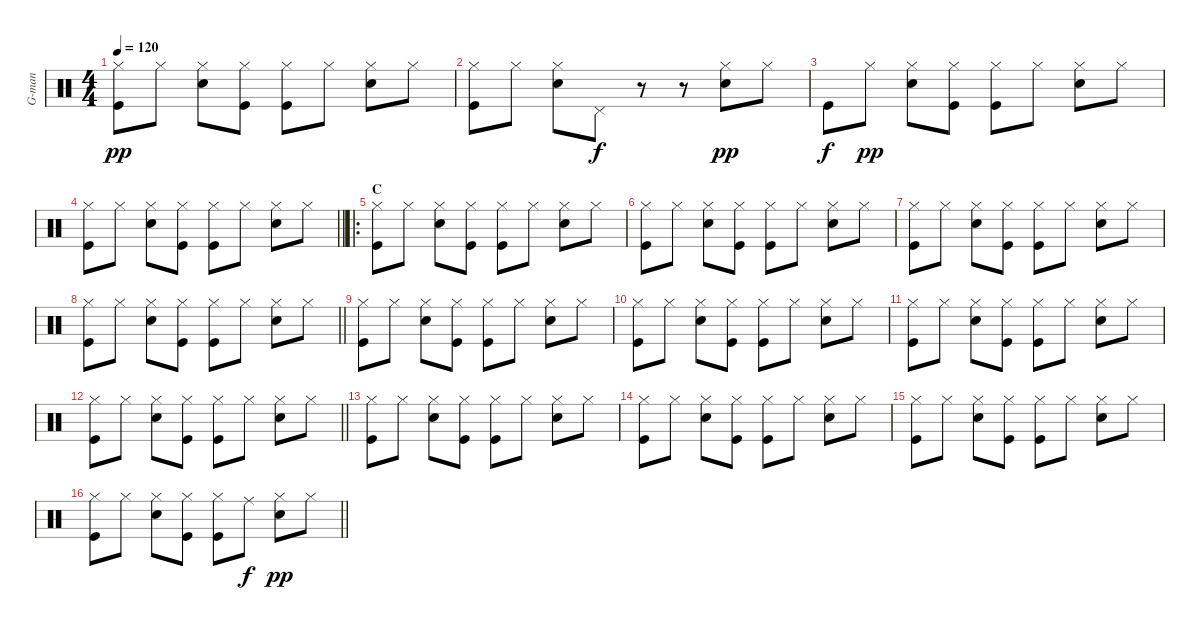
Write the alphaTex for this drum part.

\track ("G-man" "G-man") {instrument percussion}
\staff {score}
\articulation defaults
\ts (4 4)
\tempo 120
\clef neutral
\ks c
("Hi-Hat (closed)" "Kick (hit)").8{dy pp} "Hi-Hat (closed)".8 ("Hi-Hat (closed)" "Snare (hit) 2").8 ("Hi-Hat (closed)" "Kick (hit)").8 ("Hi-Hat (closed)" "Kick (hit)").8 "Hi-Hat (closed)".8 ("Hi-Hat (closed)" "Snare (hit) 2").8 "Hi-Hat (closed)".8 |
("Hi-Hat (closed)" "Kick (hit)").8 "Hi-Hat (closed)".8 ("Hi-Hat (closed)" "Snare (hit) 2").8 "Pedal Hi-Hat (hit)".8{dy f} r.8 r.8 ("Hi-Hat (closed)" "Snare (hit) 2").8{dy pp} "Hi-Hat (closed)".8 |
"Kick (hit)".8{dy f} "Hi-Hat (closed)".8{dy pp} ("Hi-Hat (closed)" "Snare (hit) 2").8 ("Hi-Hat (closed)" "Kick (hit)").8 ("Hi-Hat (closed)" "Kick (hit)").8 "Hi-Hat (closed)".8 ("Hi-Hat (closed)" "Snare (hit) 2").8 "Hi-Hat (closed)".8 |
\barLineRight lightlight
("Hi-Hat (closed)" "Kick (hit)").8 "Hi-Hat (closed)".8 ("Hi-Hat (closed)" "Snare (hit) 2").8 ("Hi-Hat (closed)" "Kick (hit)").8 ("Hi-Hat (closed)" "Kick (hit)").8 "Hi-Hat (closed)".8 ("Hi-Hat (closed)" "Snare (hit) 2").8 "Hi-Hat (closed)".8 |
\ro
\section ("" "C")
("Hi-Hat (closed)" "Kick (hit)").8 "Hi-Hat (closed)".8 ("Hi-Hat (closed)" "Snare (hit) 2").8 ("Hi-Hat (closed)" "Kick (hit)").8 ("Hi-Hat (closed)" "Kick (hit)").8 "Hi-Hat (closed)".8 ("Hi-Hat (closed)" "Snare (hit) 2").8 "Hi-Hat (closed)".8 |
("Hi-Hat (closed)" "Kick (hit)").8 "Hi-Hat (closed)".8 ("Hi-Hat (closed)" "Snare (hit) 2").8 ("Hi-Hat (closed)" "Kick (hit)").8 ("Hi-Hat (closed)" "Kick (hit)").8 "Hi-Hat (closed)".8 ("Hi-Hat (closed)" "Snare (hit) 2").8 "Hi-Hat (closed)".8 |
("Hi-Hat (closed)" "Kick (hit)").8 "Hi-Hat (closed)".8 ("Hi-Hat (closed)" "Snare (hit) 2").8 ("Hi-Hat (closed)" "Kick (hit)").8 ("Hi-Hat (closed)" "Kick (hit)").8 "Hi-Hat (closed)".8 ("Hi-Hat (closed)" "Snare (hit) 2").8 "Hi-Hat (closed)".8 |
\barLineRight lightlight
("Hi-Hat (closed)" "Kick (hit)").8 "Hi-Hat (closed)".8 ("Hi-Hat (closed)" "Snare (hit) 2").8 ("Hi-Hat (closed)" "Kick (hit)").8 ("Hi-Hat (closed)" "Kick (hit)").8 "Hi-Hat (closed)".8 ("Hi-Hat (closed)" "Snare (hit) 2").8 "Hi-Hat (closed)".8 |
("Hi-Hat (closed)" "Kick (hit)").8 "Hi-Hat (closed)".8 ("Hi-Hat (closed)" "Snare (hit) 2").8 ("Hi-Hat (closed)" "Kick (hit)").8 ("Hi-Hat (closed)" "Kick (hit)").8 "Hi-Hat (closed)".8 ("Hi-Hat (closed)" "Snare (hit) 2").8 "Hi-Hat (closed)".8 |
("Hi-Hat (closed)" "Kick (hit)").8 "Hi-Hat (closed)".8 ("Hi-Hat (closed)" "Snare (hit) 2").8 ("Hi-Hat (closed)" "Kick (hit)").8 ("Hi-Hat (closed)" "Kick (hit)").8 "Hi-Hat (closed)".8 ("Hi-Hat (closed)" "Snare (hit) 2").8 "Hi-Hat (closed)".8 |
("Hi-Hat (closed)" "Kick (hit)").8 "Hi-Hat (closed)".8 ("Hi-Hat (closed)" "Snare (hit) 2").8 ("Hi-Hat (closed)" "Kick (hit)").8 ("Hi-Hat (closed)" "Kick (hit)").8 "Hi-Hat (closed)".8 ("Hi-Hat (closed)" "Snare (hit) 2").8 "Hi-Hat (closed)".8 |
\barLineRight lightlight
("Hi-Hat (closed)" "Kick (hit)").8 "Hi-Hat (closed)".8 ("Hi-Hat (closed)" "Snare (hit) 2").8 ("Hi-Hat (closed)" "Kick (hit)").8 ("Hi-Hat (closed)" "Kick (hit)").8 "Hi-Hat (closed)".8 ("Hi-Hat (closed)" "Snare (hit) 2").8 "Hi-Hat (closed)".8 |
("Hi-Hat (closed)" "Kick (hit)").8 "Hi-Hat (closed)".8 ("Hi-Hat (closed)" "Snare (hit) 2").8 ("Hi-Hat (closed)" "Kick (hit)").8 ("Hi-Hat (closed)" "Kick (hit)").8 "Hi-Hat (closed)".8 ("Hi-Hat (closed)" "Snare (hit) 2").8 "Hi-Hat (closed)".8 |
("Hi-Hat (closed)" "Kick (hit)").8 "Hi-Hat (closed)".8 ("Hi-Hat (closed)" "Snare (hit) 2").8 ("Hi-Hat (closed)" "Kick (hit)").8 ("Hi-Hat (closed)" "Kick (hit)").8 "Hi-Hat (closed)".8 ("Hi-Hat (closed)" "Snare (hit) 2").8 "Hi-Hat (closed)".8 |
("Hi-Hat (closed)" "Kick (hit)").8 "Hi-Hat (closed)".8 ("Hi-Hat (closed)" "Snare (hit) 2").8 ("Hi-Hat (closed)" "Kick (hit)").8 ("Hi-Hat (closed)" "Kick (hit)").8 "Hi-Hat (closed)".8 ("Hi-Hat (closed)" "Snare (hit) 2").8 "Hi-Hat (closed)".8 |
\barLineRight lightlight
("Hi-Hat (closed)" "Kick (hit)").8 "Hi-Hat (closed)".8 ("Hi-Hat (closed)" "Snare (hit) 2").8 ("Hi-Hat (closed)" "Kick (hit)").8 ("Hi-Hat (closed)" "Kick (hit)").8 "Ride (middle)".8{dy f} ("Hi-Hat (closed)" "Snare (hit) 2").8{dy pp} "Hi-Hat (closed)".8
